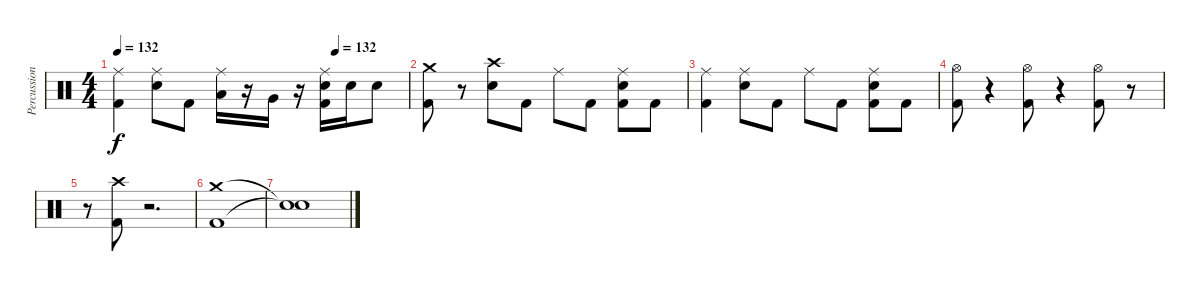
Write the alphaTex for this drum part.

\track ("Percussions" "Percussion") {instrument percussion}
\staff {score}
\articulation defaults
\ts (4 4)
\tempo 132
\tempo (132 0.75)
\clef neutral
\ks c
("Ride (middle)" "Kick (hit) 2").4{dy f} ("Ride (middle)" "Electric Snare (hit)").8 "Kick (hit) 2".8 ("Ride (middle)" "Low Tom (hit)").16 r.16 "Very Low Tom (hit)".16 r.16 ("Ride (middle)" "Electric Snare (hit)" "Kick (hit) 2").16 "Electric Snare (hit)".16 "Electric Snare (hit)".8 |
("Crash medium (hit)" "Kick (hit) 2").8 r.8 ("Crash high (hit)" "Electric Snare (hit)").8 "Kick (hit) 2".8 "Ride (middle)".8 "Kick (hit) 2".8 ("Ride (middle)" "Electric Snare (hit)" "Kick (hit) 2").8 "Kick (hit) 2".8 |
("Ride (middle)" "Kick (hit) 2").4 ("Ride (middle)" "Electric Snare (hit)").8 "Kick (hit) 2".8 "Ride (middle)".8 "Kick (hit) 2".8 ("Ride (middle)" "Electric Snare (hit)" "Kick (hit) 2").8 "Kick (hit) 2".8 |
("Hi-Hat (open)" "Kick (hit) 2").8 r.4 ("Hi-Hat (open)" "Kick (hit) 2").8 r.4 ("Hi-Hat (open)" "Kick (hit) 2").8 r.8 |
r.8 ("Crash high (hit)" "Kick (hit) 2").8 r.2{d} |
("Crash medium (hit)" "Kick (hit) 2").1 |
("Snare (hit)"{t} "Snare (hit)"{t}).1
